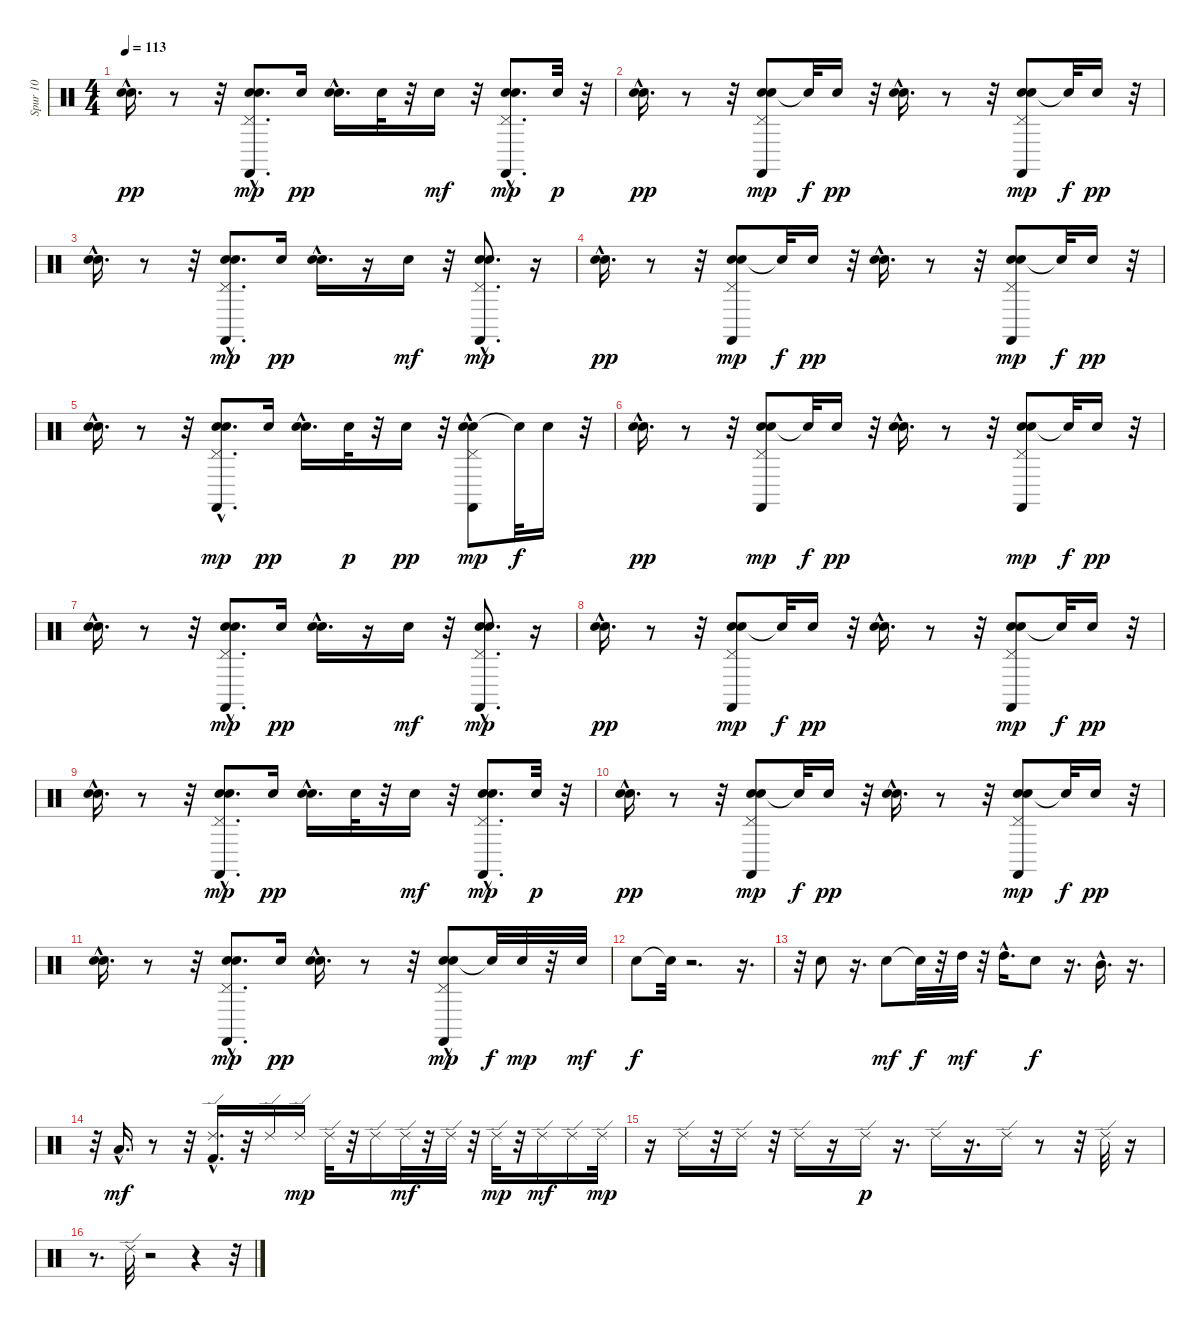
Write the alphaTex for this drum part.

\track ("Spur 10" "Spur 10") {instrument percussion}
\staff {score}
\articulation defaults
\ts (4 4)
\tempo 113
\clef neutral
\ks c
("Snare (hit) 2"{hac} "Electric Snare (hit)").16{d dy pp} r.8 r.32 ("Snare (hit) 2" "Pedal Hi-Hat (hit)"{hac} "Electric Snare (hit)" "Castanets (hit)").8{d dy mp} "Snare (hit) 2".16{dy pp} ("Snare (hit) 2"{hac} "Electric Snare (hit)").16{d} "Snare (hit) 2".32 r.32 "Snare (hit) 2".16{dy mf} r.32 ("Snare (hit) 2"{hac} "Pedal Hi-Hat (hit)"{hac} "Electric Snare (hit)" "Castanets (hit)").8{d dy mp} "Snare (hit) 2".32{dy p} r.32 |
("Snare (hit) 2"{hac} "Electric Snare (hit)").16{d dy pp} r.8 r.32 ("Snare (hit) 2" "Pedal Hi-Hat (hit)" "Electric Snare (hit)" "Castanets (hit)").8{dy mp} "Snare (hit)"{t}.32{dy f} "Snare (hit) 2".16{dy pp} r.32 ("Snare (hit) 2"{hac} "Electric Snare (hit)").16{d} r.8 r.32 ("Snare (hit) 2" "Pedal Hi-Hat (hit)" "Electric Snare (hit)" "Castanets (hit)").8{dy mp} "Snare (hit)"{t}.32{dy f} "Snare (hit) 2".16{dy pp} r.32 |
("Snare (hit) 2"{hac} "Electric Snare (hit)").16{d} r.8 r.32 ("Snare (hit) 2" "Pedal Hi-Hat (hit)"{hac} "Electric Snare (hit)" "Castanets (hit)").8{d dy mp} "Snare (hit) 2".16{dy pp} ("Snare (hit) 2"{hac} "Electric Snare (hit)").16{d} r.16 "Snare (hit) 2".16{dy mf} r.32 ("Snare (hit) 2"{hac} "Pedal Hi-Hat (hit)"{hac} "Electric Snare (hit)" "Castanets (hit)").8{d dy mp} r.16 |
("Snare (hit) 2"{hac} "Electric Snare (hit)").16{d dy pp} r.8 r.32 ("Snare (hit) 2" "Pedal Hi-Hat (hit)" "Electric Snare (hit)" "Castanets (hit)").8{dy mp} "Snare (hit)"{t}.32{dy f} "Snare (hit) 2".16{dy pp} r.32 ("Snare (hit) 2"{hac} "Electric Snare (hit)").16{d} r.8 r.32 ("Snare (hit) 2" "Pedal Hi-Hat (hit)" "Electric Snare (hit)" "Castanets (hit)").8{dy mp} "Snare (hit)"{t}.32{dy f} "Snare (hit) 2".16{dy pp} r.32 |
("Snare (hit) 2"{hac} "Electric Snare (hit)").16{d} r.8 r.32 ("Snare (hit) 2" "Pedal Hi-Hat (hit)"{hac} "Electric Snare (hit)" "Castanets (hit)").8{d dy mp} "Snare (hit) 2".16{dy pp} ("Snare (hit) 2"{hac} "Electric Snare (hit)").16{d} "Snare (hit) 2".32{dy p} r.32 "Snare (hit) 2".16{dy pp} r.32 ("Hand Clap (hit)"{hac} "Pedal Hi-Hat (hit)" "Electric Snare (hit)" "Castanets (hit)").8{dy mp} "Snare (hit)"{t}.32{dy f} "Hand Clap (hit)".16 r.32 |
("Snare (hit) 2"{hac} "Electric Snare (hit)").16{d dy pp} r.8 r.32 ("Snare (hit) 2" "Pedal Hi-Hat (hit)" "Electric Snare (hit)" "Castanets (hit)").8{dy mp} "Snare (hit)"{t}.32{dy f} "Snare (hit) 2".16{dy pp} r.32 ("Snare (hit) 2"{hac} "Electric Snare (hit)").16{d} r.8 r.32 ("Snare (hit) 2" "Pedal Hi-Hat (hit)" "Electric Snare (hit)" "Castanets (hit)").8{dy mp} "Snare (hit)"{t}.32{dy f} "Snare (hit) 2".16{dy pp} r.32 |
("Snare (hit) 2"{hac} "Electric Snare (hit)").16{d} r.8 r.32 ("Snare (hit) 2" "Pedal Hi-Hat (hit)"{hac} "Electric Snare (hit)" "Castanets (hit)").8{d dy mp} "Snare (hit) 2".16{dy pp} ("Snare (hit) 2"{hac} "Electric Snare (hit)").16{d} r.16 "Snare (hit) 2".16{dy mf} r.32 ("Snare (hit) 2"{hac} "Pedal Hi-Hat (hit)"{hac} "Electric Snare (hit)" "Castanets (hit)").8{d dy mp} r.16 |
("Snare (hit) 2"{hac} "Electric Snare (hit)").16{d dy pp} r.8 r.32 ("Snare (hit) 2" "Pedal Hi-Hat (hit)" "Electric Snare (hit)" "Castanets (hit)").8{dy mp} "Snare (hit)"{t}.32{dy f} "Snare (hit) 2".16{dy pp} r.32 ("Snare (hit) 2"{hac} "Electric Snare (hit)").16{d} r.8 r.32 ("Snare (hit) 2" "Pedal Hi-Hat (hit)" "Electric Snare (hit)" "Castanets (hit)").8{dy mp} "Snare (hit)"{t}.32{dy f} "Snare (hit) 2".16{dy pp} r.32 |
("Snare (hit) 2"{hac} "Electric Snare (hit)").16{d} r.8 r.32 ("Snare (hit) 2" "Pedal Hi-Hat (hit)"{hac} "Electric Snare (hit)" "Castanets (hit)").8{d dy mp} "Snare (hit) 2".16{dy pp} ("Snare (hit) 2"{hac} "Electric Snare (hit)").16{d} "Snare (hit) 2".32 r.32 "Snare (hit) 2".16{dy mf} r.32 ("Snare (hit) 2"{hac} "Pedal Hi-Hat (hit)"{hac} "Electric Snare (hit)" "Castanets (hit)").8{d dy mp} "Snare (hit) 2".32{dy p} r.32 |
("Snare (hit) 2"{hac} "Electric Snare (hit)").16{d dy pp} r.8 r.32 ("Snare (hit) 2" "Pedal Hi-Hat (hit)" "Electric Snare (hit)" "Castanets (hit)").8{dy mp} "Snare (hit)"{t}.32{dy f} "Snare (hit) 2".16{dy pp} r.32 ("Snare (hit) 2"{hac} "Electric Snare (hit)").16{d} r.8 r.32 ("Snare (hit) 2" "Pedal Hi-Hat (hit)" "Electric Snare (hit)" "Castanets (hit)").8{dy mp} "Snare (hit)"{t}.32{dy f} "Snare (hit) 2".16{dy pp} r.32 |
("Snare (hit) 2"{hac} "Electric Snare (hit)").16{d} r.8 r.32 ("Snare (hit) 2" "Pedal Hi-Hat (hit)"{hac} "Electric Snare (hit)" "Castanets (hit)").8{d dy mp} "Snare (hit) 2".16{dy pp} ("Snare (hit) 2"{hac} "Electric Snare (hit)").16{d} r.8 r.32 ("Snare (hit) 2"{hac} "Pedal Hi-Hat (hit)" "Electric Snare (hit)" "Castanets (hit)").8{dy mp} "Snare (hit)"{t}.32{dy f} "Snare (hit) 2".32{dy mp} r.32 "Snare (hit) 2".32{dy mf} |
"Hand Clap (hit)".8{dy f} "Snare (hit)"{t}.32 r.2{d} r.16{d} |
r.32 "Hand Clap (hit)".8 r.16{d} "Hand Clap (hit)".8{dy mf} "Snare (hit)"{t}.32{dy f} r.32 "High Tom (hit)".32{dy mf} r.32 "High Tom (hit)"{hac}.16{d} "Hand Clap (hit)".8{dy f} r.16{d} "Mid Tom (hit)"{hac}.16{d} r.16{d} |
r.32 "Low Tom (hit)"{hac}.16{d dy mf} r.8 r.32 ("Kick (hit) 2" "Ride (edge) 2"{hac}).16{d} r.32 "Ride (edge) 2".16 "Ride (edge) 2".16{dy mp} "Ride (edge) 2".32 r.32 "Ride (edge) 2".16 "Ride (edge) 2".32{dy mf} r.32 "Ride (edge) 2".32 r.32 "Ride (edge) 2".32{dy mp} r.32 "Ride (edge) 2".16{dy mf} "Ride (edge) 2".16 "Ride (edge) 2".32{dy mp} |
r.16 "Ride (edge) 2".16 r.32 "Ride (edge) 2".16 r.32 "Ride (edge) 2".16 r.16 "Ride (edge) 2".16{dy p} r.16{d} "Ride (edge) 2".16 r.16{d} "Ride (edge) 2".16 r.8 r.32 "Ride (edge) 2".32 r.16 |
r.8{d} "Ride (edge) 2".32 r.2 r.4 r.32
